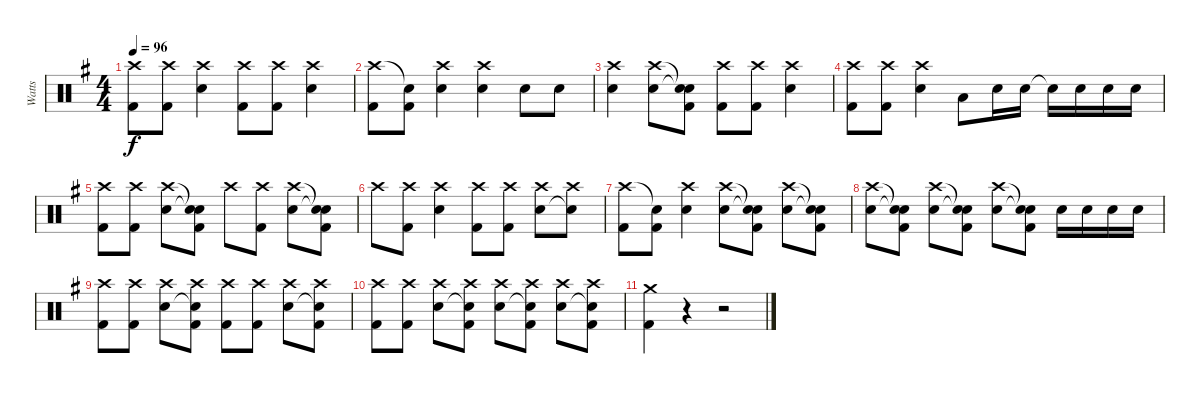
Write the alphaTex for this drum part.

\track ("Watts" "Watts") {instrument percussion}
\staff {score}
\articulation defaults
\ts (4 4)
\tempo 96
\clef neutral
\ks g
("Crash high (hit)" "Kick (hit) 2").8{dy f} ("Crash high (hit)" "Kick (hit) 2").8 ("Crash high (hit)" "Snare (hit) 2").4 ("Crash high (hit)" "Kick (hit) 2").8 ("Crash high (hit)" "Kick (hit) 2").8 ("Crash high (hit)" "Snare (hit) 2").4 |
("Crash high (hit)" "Kick (hit) 2").8 ("Snare (hit)"{t} "Kick (hit) 2").8 ("Crash high (hit)" "Snare (hit) 2").4 ("Crash high (hit)" "Snare (hit) 2").4 "Snare (hit) 2".8 "Snare (hit) 2".8 |
("Crash high (hit)" "Snare (hit) 2").4 ("Crash high (hit)" "Snare (hit) 2").8 ("Snare (hit)"{t} "Snare (hit)"{t} "Kick (hit) 2").8 ("Crash high (hit)" "Kick (hit) 2").8 ("Crash high (hit)" "Kick (hit) 2").8 ("Crash high (hit)" "Snare (hit) 2").4 |
("Crash high (hit)" "Kick (hit) 2").8 ("Crash high (hit)" "Kick (hit) 2").8 ("Crash high (hit)" "Snare (hit) 2").4 "Low Tom (hit)".8 "Snare (hit) 2".16 "Snare (hit) 2".16 "Snare (hit)"{t}.16 "Snare (hit) 2".16 "Snare (hit) 2".16 "Snare (hit) 2".16 |
("Crash high (hit)" "Kick (hit) 2").8 ("Crash high (hit)" "Kick (hit) 2").8 ("Crash high (hit)" "Snare (hit) 2").8 ("Snare (hit)"{t} "Snare (hit)"{t} "Kick (hit) 2").8 "Crash high (hit)".8 ("Crash high (hit)" "Kick (hit) 2").8 ("Crash high (hit)" "Snare (hit) 2").8 ("Snare (hit)"{t} "Snare (hit)"{t} "Kick (hit) 2").8 |
"Crash high (hit)".8 ("Crash high (hit)" "Kick (hit) 2").8 ("Crash high (hit)" "Snare (hit) 2").4 ("Crash high (hit)" "Kick (hit) 2").8 ("Crash high (hit)" "Kick (hit) 2").8 ("Crash high (hit)" "Snare (hit) 2").8 ("Crash high (hit)" "Snare (hit)"{t}).8 |
("Crash high (hit)" "Kick (hit) 2").8 ("Snare (hit)"{t} "Kick (hit) 2").8 ("Crash high (hit)" "Snare (hit) 2").4 ("Crash high (hit)" "Snare (hit) 2").8 ("Snare (hit)"{t} "Snare (hit)"{t} "Kick (hit) 2").8 ("Crash high (hit)" "Snare (hit) 2").8 ("Snare (hit)"{t} "Snare (hit)"{t} "Kick (hit) 2").8 |
("Crash high (hit)" "Snare (hit) 2").8 ("Snare (hit)"{t} "Snare (hit)"{t} "Kick (hit) 2").8 ("Crash high (hit)" "Snare (hit) 2").8 ("Snare (hit)"{t} "Snare (hit)"{t} "Kick (hit) 2").8 ("Crash high (hit)" "Snare (hit) 2").8 ("Snare (hit)"{t} "Snare (hit)"{t} "Kick (hit) 2").8 "Snare (hit) 2".16 "Snare (hit) 2".16 "Snare (hit) 2".16 "Snare (hit) 2".16 |
("Crash high (hit)" "Kick (hit) 2").8 ("Crash high (hit)" "Kick (hit) 2").8 ("Crash high (hit)" "Snare (hit) 2").8 ("Crash high (hit)" "Snare (hit)"{t} "Kick (hit) 2").8 ("Crash high (hit)" "Kick (hit) 2").8 ("Crash high (hit)" "Kick (hit) 2").8 ("Crash high (hit)" "Snare (hit) 2").8 ("Crash high (hit)" "Snare (hit)"{t} "Kick (hit) 2").8 |
("Crash high (hit)" "Kick (hit) 2").8 ("Crash high (hit)" "Kick (hit) 2").8 ("Crash high (hit)" "Snare (hit) 2").8 ("Crash high (hit)" "Snare (hit)"{t} "Kick (hit) 2").8 ("Crash high (hit)" "Snare (hit) 2").8 ("Crash high (hit)" "Snare (hit)"{t} "Kick (hit) 2").8 ("Crash high (hit)" "Snare (hit) 2").8 ("Crash high (hit)" "Snare (hit)"{t} "Kick (hit) 2").8 |
("Crash medium (hit)" "Kick (hit) 2").4 r.4 r.2
